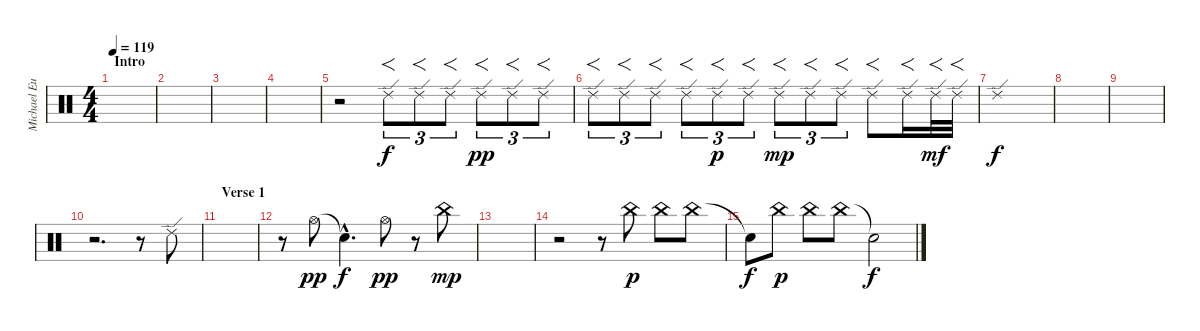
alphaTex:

\track ("Michael Eurich" "Michael Eu") {instrument percussion}
\staff {score}
\articulation defaults
\ts (4 4)
\section ("" "Intro")
\tempo 119
\clef neutral
\ks c
|
|
|
|
r.2 "Ride (edge) 2".8{f tu (3 2)} "Ride (edge) 2".8{f tu (3 2)} "Ride (edge) 2".8{f tu (3 2)} "Ride (edge) 2".8{f tu (3 2) dy pp} "Ride (edge) 2".8{f tu (3 2)} "Ride (edge) 2".8{f tu (3 2)} |
"Ride (edge) 2".8{f tu (3 2)} "Ride (edge) 2".8{f tu (3 2)} "Ride (edge) 2".8{f tu (3 2)} "Ride (edge) 2".8{f tu (3 2)} "Ride (edge) 2".8{f tu (3 2) dy p} "Ride (edge) 2".8{f tu (3 2)} "Ride (edge) 2".8{f tu (3 2) dy mp} "Ride (edge) 2".8{f tu (3 2)} "Ride (edge) 2".8{f tu (3 2)} "Ride (edge) 2".8{f} "Ride (edge) 2".16{f} "Ride (edge) 2".32{f dy mf} "Ride (edge) 2".32{f} |
"Ride (edge) 2".1{dy f} |
|
|
r.2{d} r.8 "Ride (edge) 2".8 |
\section ("" "Verse 1")
|
r.8 "Hi-Hat (open)".8{dy pp} "Snare (hit)"{hac t}.4{d dy f} "Hi-Hat (open)".8{dy pp} r.8 "China (hit)".8{dy mp} |
|
r.2 r.8 "China (hit)".8{dy p} "China (hit)".8 "China (hit)".8 |
"Snare (hit)"{t}.8{dy f} "China (hit)".8{dy p} "China (hit)".8 "China (hit)".8 "Snare (hit)"{t}.2{dy f}
